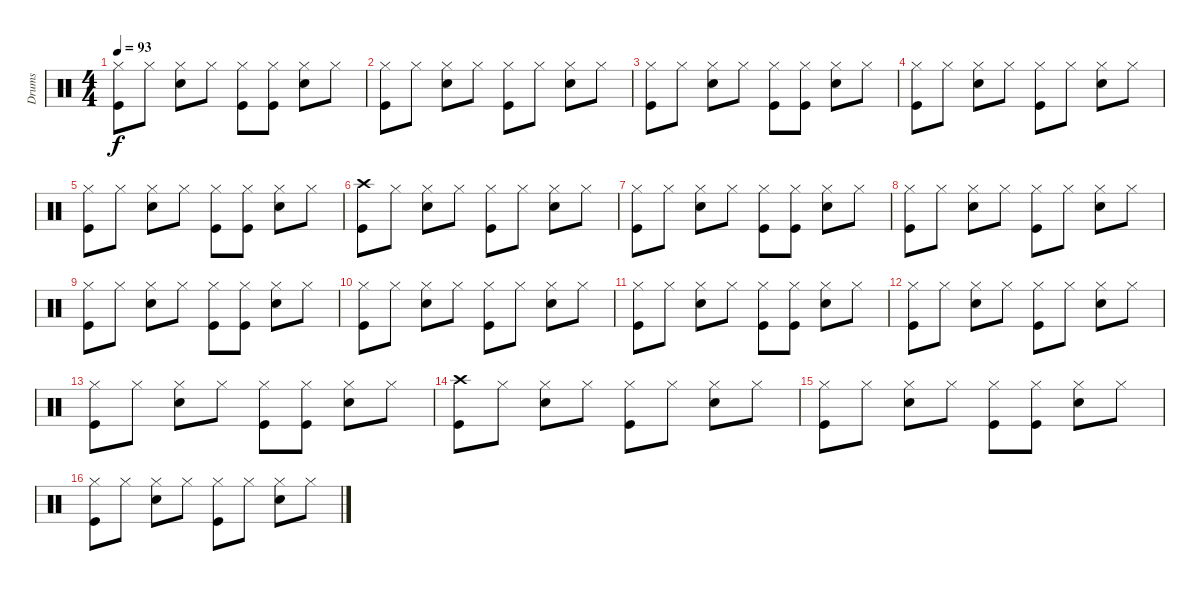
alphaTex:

\track ("Drums" "Drums") {instrument percussion}
\staff {score}
\articulation defaults
\ts (4 4)
\tempo 93
\clef neutral
\ks c
("Hi-Hat (closed)" "Kick (hit)").8{dy f} "Hi-Hat (closed)".8 ("Hi-Hat (closed)" "Snare (hit) 2").8 "Hi-Hat (closed)".8 ("Hi-Hat (closed)" "Kick (hit)").8 ("Hi-Hat (closed)" "Kick (hit)").8 ("Hi-Hat (closed)" "Snare (hit) 2").8 "Hi-Hat (closed)".8 |
("Hi-Hat (closed)" "Kick (hit)").8 "Hi-Hat (closed)".8 ("Hi-Hat (closed)" "Snare (hit) 2").8 "Hi-Hat (closed)".8 ("Hi-Hat (closed)" "Kick (hit)").8 "Hi-Hat (closed)".8 ("Hi-Hat (closed)" "Snare (hit) 2").8 "Hi-Hat (closed)".8 |
("Hi-Hat (closed)" "Kick (hit)").8 "Hi-Hat (closed)".8 ("Hi-Hat (closed)" "Snare (hit) 2").8 "Hi-Hat (closed)".8 ("Hi-Hat (closed)" "Kick (hit)").8 ("Hi-Hat (closed)" "Kick (hit)").8 ("Hi-Hat (closed)" "Snare (hit) 2").8 "Hi-Hat (closed)".8 |
("Hi-Hat (closed)" "Kick (hit)").8 "Hi-Hat (closed)".8 ("Hi-Hat (closed)" "Snare (hit) 2").8 "Hi-Hat (closed)".8 ("Hi-Hat (closed)" "Kick (hit)").8 "Hi-Hat (closed)".8 ("Hi-Hat (closed)" "Snare (hit) 2").8 "Hi-Hat (closed)".8 |
("Hi-Hat (closed)" "Kick (hit)").8 "Hi-Hat (closed)".8 ("Hi-Hat (closed)" "Snare (hit) 2").8 "Hi-Hat (closed)".8 ("Hi-Hat (closed)" "Kick (hit)").8 ("Hi-Hat (closed)" "Kick (hit)").8 ("Hi-Hat (closed)" "Snare (hit) 2").8 "Hi-Hat (closed)".8 |
("Crash high (hit)" "Kick (hit)").8 "Hi-Hat (closed)".8 ("Hi-Hat (closed)" "Snare (hit) 2").8 "Hi-Hat (closed)".8 ("Hi-Hat (closed)" "Kick (hit)").8 "Hi-Hat (closed)".8 ("Hi-Hat (closed)" "Snare (hit) 2").8 "Hi-Hat (closed)".8 |
("Hi-Hat (closed)" "Kick (hit)").8 "Hi-Hat (closed)".8 ("Hi-Hat (closed)" "Snare (hit) 2").8 "Hi-Hat (closed)".8 ("Hi-Hat (closed)" "Kick (hit)").8 ("Hi-Hat (closed)" "Kick (hit)").8 ("Hi-Hat (closed)" "Snare (hit) 2").8 "Hi-Hat (closed)".8 |
("Hi-Hat (closed)" "Kick (hit)").8 "Hi-Hat (closed)".8 ("Hi-Hat (closed)" "Snare (hit) 2").8 "Hi-Hat (closed)".8 ("Hi-Hat (closed)" "Kick (hit)").8 "Hi-Hat (closed)".8 ("Hi-Hat (closed)" "Snare (hit) 2").8 "Hi-Hat (closed)".8 |
("Hi-Hat (closed)" "Kick (hit)").8 "Hi-Hat (closed)".8 ("Hi-Hat (closed)" "Snare (hit) 2").8 "Hi-Hat (closed)".8 ("Hi-Hat (closed)" "Kick (hit)").8 ("Hi-Hat (closed)" "Kick (hit)").8 ("Hi-Hat (closed)" "Snare (hit) 2").8 "Hi-Hat (closed)".8 |
("Hi-Hat (closed)" "Kick (hit)").8 "Hi-Hat (closed)".8 ("Hi-Hat (closed)" "Snare (hit) 2").8 "Hi-Hat (closed)".8 ("Hi-Hat (closed)" "Kick (hit)").8 "Hi-Hat (closed)".8 ("Hi-Hat (closed)" "Snare (hit) 2").8 "Hi-Hat (closed)".8 |
("Hi-Hat (closed)" "Kick (hit)").8 "Hi-Hat (closed)".8 ("Hi-Hat (closed)" "Snare (hit) 2").8 "Hi-Hat (closed)".8 ("Hi-Hat (closed)" "Kick (hit)").8 ("Hi-Hat (closed)" "Kick (hit)").8 ("Hi-Hat (closed)" "Snare (hit) 2").8 "Hi-Hat (closed)".8 |
("Hi-Hat (closed)" "Kick (hit)").8 "Hi-Hat (closed)".8 ("Hi-Hat (closed)" "Snare (hit) 2").8 "Hi-Hat (closed)".8 ("Hi-Hat (closed)" "Kick (hit)").8 "Hi-Hat (closed)".8 ("Hi-Hat (closed)" "Snare (hit) 2").8 "Hi-Hat (closed)".8 |
("Hi-Hat (closed)" "Kick (hit)").8 "Hi-Hat (closed)".8 ("Hi-Hat (closed)" "Snare (hit) 2").8 "Hi-Hat (closed)".8 ("Hi-Hat (closed)" "Kick (hit)").8 ("Hi-Hat (closed)" "Kick (hit)").8 ("Hi-Hat (closed)" "Snare (hit) 2").8 "Hi-Hat (closed)".8 |
("Crash high (hit)" "Kick (hit)").8 "Hi-Hat (closed)".8 ("Hi-Hat (closed)" "Snare (hit) 2").8 "Hi-Hat (closed)".8 ("Hi-Hat (closed)" "Kick (hit)").8 "Hi-Hat (closed)".8 ("Hi-Hat (closed)" "Snare (hit) 2").8 "Hi-Hat (closed)".8 |
("Hi-Hat (closed)" "Kick (hit)").8 "Hi-Hat (closed)".8 ("Hi-Hat (closed)" "Snare (hit) 2").8 "Hi-Hat (closed)".8 ("Hi-Hat (closed)" "Kick (hit)").8 ("Hi-Hat (closed)" "Kick (hit)").8 ("Hi-Hat (closed)" "Snare (hit) 2").8 "Hi-Hat (closed)".8 |
("Hi-Hat (closed)" "Kick (hit)").8 "Hi-Hat (closed)".8 ("Hi-Hat (closed)" "Snare (hit) 2").8 "Hi-Hat (closed)".8 ("Hi-Hat (closed)" "Kick (hit)").8 "Hi-Hat (closed)".8 ("Hi-Hat (closed)" "Snare (hit) 2").8 "Hi-Hat (closed)".8
